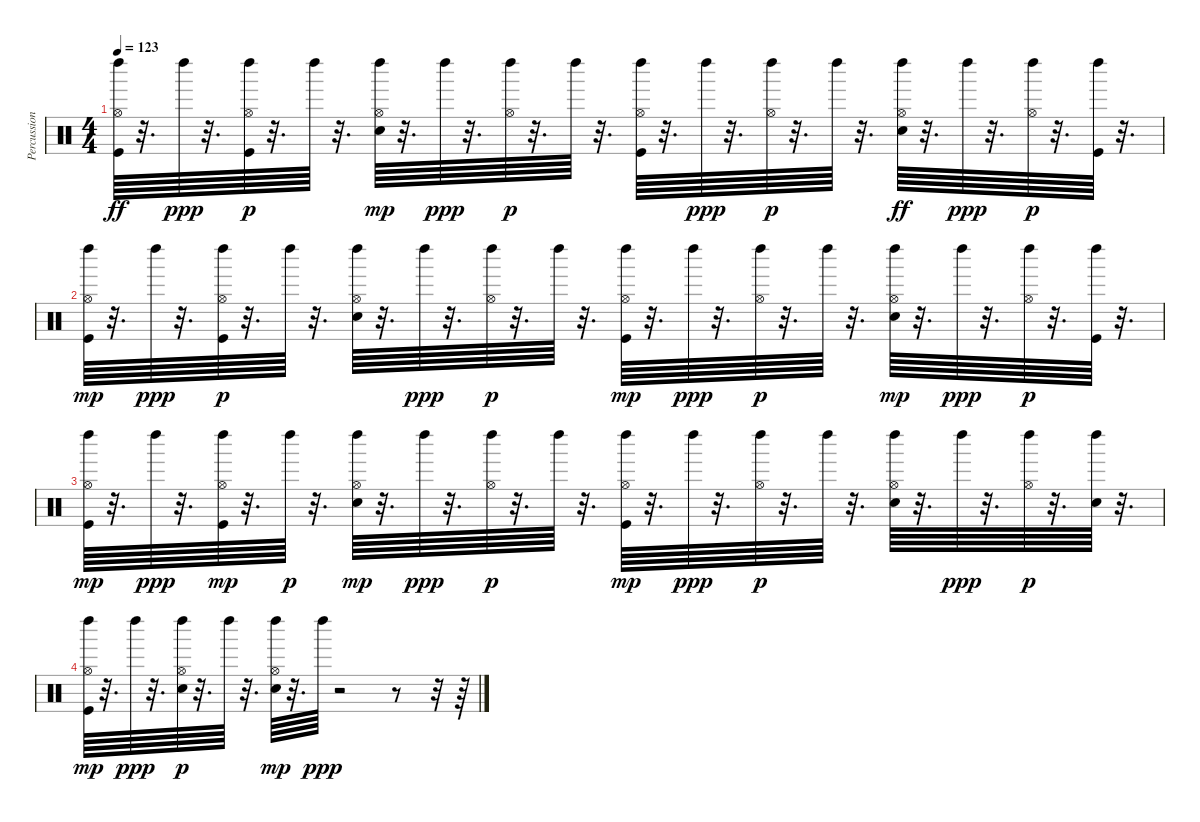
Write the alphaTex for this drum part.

\track ("Percussion" "Percussion") {instrument percussion}
\staff {score}
\articulation defaults
\ts (4 4)
\tempo 123
\clef neutral
\ks c
("Left Maraca (hit)" "Hi-Hat (open)" "Kick (hit)").64{dy ff volume 6} r.32{d} "Left Maraca (hit)".64{dy ppp} r.32{d} ("Kick (hit)" "Hi-Hat (open)" "Left Maraca (hit)").64{dy p volume 5} r.32{d} "Left Maraca (hit)".64 r.32{d} ("Electric Snare (hit)" "Hi-Hat (open)" "Left Maraca (hit)").64{dy mp volume 5} r.32{d} "Left Maraca (hit)".64{dy ppp} r.32{d} ("Left Maraca (hit)" "Hi-Hat (open)").64{dy p volume 5} r.32{d} "Left Maraca (hit)".64 r.32{d} ("Kick (hit)" "Left Maraca (hit)" "Hi-Hat (open)").64{volume 5} r.32{d} "Left Maraca (hit)".64{dy ppp} r.32{d} ("Hi-Hat (open)" "Left Maraca (hit)").64{dy p volume 4} r.32{d} "Left Maraca (hit)".64 r.32{d} ("Left Maraca (hit)" "Hi-Hat (open)" "Electric Snare (hit)").64{dy ff volume 4} r.32{d} "Left Maraca (hit)".64{dy ppp} r.32{d} ("Hi-Hat (open)" "Left Maraca (hit)").64{dy p volume 4} r.32{d} ("Kick (hit)" "Left Maraca (hit)").64 r.32{d} |
("Kick (hit)" "Hi-Hat (open)" "Left Maraca (hit)").64{dy mp volume 4} r.32{d} "Left Maraca (hit)".64{dy ppp} r.32{d} ("Kick (hit)" "Hi-Hat (open)" "Left Maraca (hit)").64{dy p volume 4} r.32{d} "Left Maraca (hit)".64 r.32{d} ("Electric Snare (hit)" "Left Maraca (hit)" "Hi-Hat (open)").64{volume 4} r.32{d} "Left Maraca (hit)".64{dy ppp} r.32{d} ("Hi-Hat (open)" "Left Maraca (hit)").64{dy p volume 3} r.32{d} "Left Maraca (hit)".64 r.32{d} ("Kick (hit)" "Left Maraca (hit)" "Hi-Hat (open)").64{dy mp volume 3} r.32{d} "Left Maraca (hit)".64{dy ppp} r.32{d} ("Hi-Hat (open)" "Left Maraca (hit)").64{dy p volume 3} r.32{d} "Left Maraca (hit)".64 r.32{d} ("Electric Snare (hit)" "Hi-Hat (open)" "Left Maraca (hit)").64{dy mp volume 3} r.32{d} "Left Maraca (hit)".64{dy ppp} r.32{d} ("Left Maraca (hit)" "Hi-Hat (open)").64{dy p volume 2} r.32{d} ("Kick (hit)" "Left Maraca (hit)").64 r.32{d} |
("Kick (hit)" "Hi-Hat (open)" "Left Maraca (hit)").64{dy mp volume 2} r.32{d} "Left Maraca (hit)".64{dy ppp} r.32{d} ("Left Maraca (hit)" "Hi-Hat (open)" "Kick (hit)").64{dy mp volume 2} r.32{d} "Left Maraca (hit)".64{dy p} r.32{d} ("Electric Snare (hit)" "Hi-Hat (open)" "Left Maraca (hit)").64{dy mp volume 2} r.32{d} "Left Maraca (hit)".64{dy ppp} r.32{d} ("Hi-Hat (open)" "Left Maraca (hit)").64{dy p volume 2} r.32{d} "Left Maraca (hit)".64 r.32{d} ("Kick (hit)" "Hi-Hat (open)" "Left Maraca (hit)").64{dy mp volume 1} r.32{d} "Left Maraca (hit)".64{dy ppp} r.32{d} ("Hi-Hat (open)" "Left Maraca (hit)").64{dy p volume 1} r.32{d} "Left Maraca (hit)".64 r.32{d} ("Electric Snare (hit)" "Left Maraca (hit)" "Hi-Hat (open)").64{volume 1} r.32{d} "Left Maraca (hit)".64{dy ppp} r.32{d} ("Hi-Hat (open)" "Left Maraca (hit)").64{dy p volume 1} r.32{d} ("Electric Snare (hit)" "Left Maraca (hit)").64 r.32{d} |
("Kick (hit)" "Hi-Hat (open)" "Left Maraca (hit)").64{dy mp volume 1} r.32{d} "Left Maraca (hit)".64{dy ppp} r.32{d} ("Electric Snare (hit)" "Hi-Hat (open)" "Left Maraca (hit)").64{dy p volume 0} r.32{d} "Left Maraca (hit)".64 r.32{d} ("Electric Snare (hit)" "Hi-Hat (open)" "Left Maraca (hit)").64{dy mp volume 0} r.32{d} "Left Maraca (hit)".64{dy ppp} r.2 r.8 r.32 r.64
